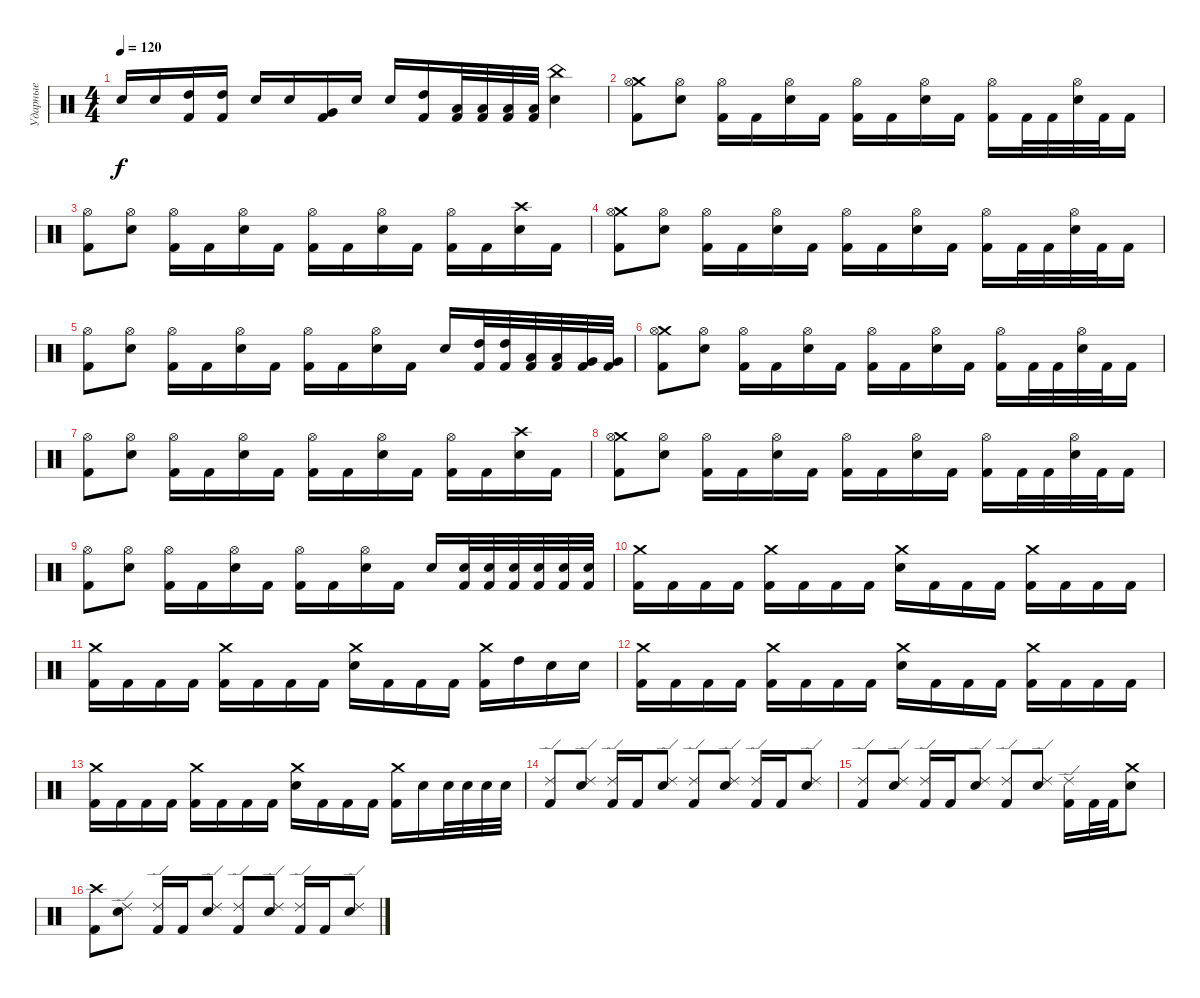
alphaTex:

\track ("Ударные" "Ударные") {instrument percussion}
\staff {score}
\articulation defaults
\ts (4 4)
\tempo 120
\clef neutral
\ks c "Snare (hit)".16{dy f} "Electric Snare (hit)".16
("High Tom (hit)" "Kick (hit) 2").16 ("High Tom (hit)" "Kick (hit) 2").16 "Electric Snare (hit)".16 "Electric Snare (hit)".16 ("Very Low Tom (hit)" "Kick (hit) 2").16 "Electric Snare (hit)".16 "Electric Snare (hit)".16 ("High Tom (hit)" "Kick (hit) 2").16 ("Low Tom (hit)" "Kick (hit) 2").32 ("Low Tom (hit)" "Kick (hit) 2").32 ("Low Tom (hit)" "Kick (hit) 2").32 ("Low Tom (hit)" "Kick (hit) 2").32 ("China (hit)" "Electric Snare (hit)").4 |
("Crash medium (hit)" "Hi-Hat (open)" "Kick (hit) 2").8 ("Hi-Hat (open)" "Electric Snare (hit)").8 ("Hi-Hat (open)" "Kick (hit) 2").16 "Kick (hit) 2".16 ("Hi-Hat (open)" "Electric Snare (hit)").16 "Kick (hit) 2".16 ("Hi-Hat (open)" "Kick (hit) 2").16 "Kick (hit) 2".16 ("Hi-Hat (open)" "Electric Snare (hit)").16 "Kick (hit) 2".16 ("Hi-Hat (open)" "Kick (hit) 2").16 "Kick (hit) 2".32 "Kick (hit) 2".32 ("Hi-Hat (open)" "Electric Snare (hit)").32 "Kick (hit) 2".32 "Kick (hit) 2".16 |
("Hi-Hat (open)" "Kick (hit) 2").8 ("Hi-Hat (open)" "Electric Snare (hit)").8 ("Hi-Hat (open)" "Kick (hit) 2").16 "Kick (hit) 2".16 ("Hi-Hat (open)" "Electric Snare (hit)").16 "Kick (hit) 2".16 ("Hi-Hat (open)" "Kick (hit) 2").16 "Kick (hit) 2".16 ("Hi-Hat (open)" "Electric Snare (hit)").16 "Kick (hit) 2".16 ("Hi-Hat (open)" "Kick (hit) 2").16 "Kick (hit) 2".16 ("Crash high (hit)" "Electric Snare (hit)").16 "Kick (hit) 2".16 |
("Crash medium (hit)" "Hi-Hat (open)" "Kick (hit) 2").8 ("Hi-Hat (open)" "Electric Snare (hit)").8 ("Hi-Hat (open)" "Kick (hit) 2").16 "Kick (hit) 2".16 ("Hi-Hat (open)" "Electric Snare (hit)").16 "Kick (hit) 2".16 ("Hi-Hat (open)" "Kick (hit) 2").16 "Kick (hit) 2".16 ("Hi-Hat (open)" "Electric Snare (hit)").16 "Kick (hit) 2".16 ("Hi-Hat (open)" "Kick (hit) 2").16 "Kick (hit) 2".32 "Kick (hit) 2".32 ("Hi-Hat (open)" "Electric Snare (hit)").32 "Kick (hit) 2".32 "Kick (hit) 2".16 |
("Hi-Hat (open)" "Kick (hit) 2").8 ("Hi-Hat (open)" "Electric Snare (hit)").8 ("Hi-Hat (open)" "Kick (hit) 2").16 "Kick (hit) 2".16 ("Hi-Hat (open)" "Electric Snare (hit)").16 "Kick (hit) 2".16 ("Hi-Hat (open)" "Kick (hit) 2").16 "Kick (hit) 2".16 ("Hi-Hat (open)" "Electric Snare (hit)").16 "Kick (hit) 2".16 "Electric Snare (hit)".16 ("High Tom (hit)" "Kick (hit) 2").32 ("High Tom (hit)" "Kick (hit) 2").32 ("Low Tom (hit)" "Kick (hit) 2").32 ("Low Tom (hit)" "Kick (hit) 2").32 ("Very Low Tom (hit)" "Kick (hit) 2").32 ("Very Low Tom (hit)" "Kick (hit) 2").32 |
("Crash medium (hit)" "Hi-Hat (open)" "Kick (hit) 2").8 ("Hi-Hat (open)" "Electric Snare (hit)").8 ("Hi-Hat (open)" "Kick (hit) 2").16 "Kick (hit) 2".16 ("Hi-Hat (open)" "Electric Snare (hit)").16 "Kick (hit) 2".16 ("Hi-Hat (open)" "Kick (hit) 2").16 "Kick (hit) 2".16 ("Hi-Hat (open)" "Electric Snare (hit)").16 "Kick (hit) 2".16 ("Hi-Hat (open)" "Kick (hit) 2").16 "Kick (hit) 2".32 "Kick (hit) 2".32 ("Hi-Hat (open)" "Electric Snare (hit)").32 "Kick (hit) 2".32 "Kick (hit) 2".16 |
("Hi-Hat (open)" "Kick (hit) 2").8 ("Hi-Hat (open)" "Electric Snare (hit)").8 ("Hi-Hat (open)" "Kick (hit) 2").16 "Kick (hit) 2".16 ("Hi-Hat (open)" "Electric Snare (hit)").16 "Kick (hit) 2".16 ("Hi-Hat (open)" "Kick (hit) 2").16 "Kick (hit) 2".16 ("Hi-Hat (open)" "Electric Snare (hit)").16 "Kick (hit) 2".16 ("Hi-Hat (open)" "Kick (hit) 2").16 "Kick (hit) 2".16 ("Crash high (hit)" "Electric Snare (hit)").16 "Kick (hit) 2".16 |
("Crash medium (hit)" "Hi-Hat (open)" "Kick (hit) 2").8 ("Hi-Hat (open)" "Electric Snare (hit)").8 ("Hi-Hat (open)" "Kick (hit) 2").16 "Kick (hit) 2".16 ("Hi-Hat (open)" "Electric Snare (hit)").16 "Kick (hit) 2".16 ("Hi-Hat (open)" "Kick (hit) 2").16 "Kick (hit) 2".16 ("Hi-Hat (open)" "Electric Snare (hit)").16 "Kick (hit) 2".16 ("Hi-Hat (open)" "Kick (hit) 2").16 "Kick (hit) 2".32 "Kick (hit) 2".32 ("Hi-Hat (open)" "Electric Snare (hit)").32 "Kick (hit) 2".32 "Kick (hit) 2".16 |
("Hi-Hat (open)" "Kick (hit) 2").8 ("Hi-Hat (open)" "Electric Snare (hit)").8 ("Hi-Hat (open)" "Kick (hit) 2").16 "Kick (hit) 2".16 ("Hi-Hat (open)" "Electric Snare (hit)").16 "Kick (hit) 2".16 ("Hi-Hat (open)" "Kick (hit) 2").16 "Kick (hit) 2".16 ("Hi-Hat (open)" "Electric Snare (hit)").16 "Kick (hit) 2".16 "Electric Snare (hit)".16 ("Electric Snare (hit)" "Kick (hit) 2").32 ("Electric Snare (hit)" "Kick (hit) 2").32 ("Electric Snare (hit)" "Kick (hit) 2").32 ("Electric Snare (hit)" "Kick (hit) 2").32 ("Electric Snare (hit)" "Kick (hit) 2").32 ("Electric Snare (hit)" "Kick (hit) 2").32 |
("Crash medium (hit)" "Kick (hit) 2").16 "Kick (hit) 2".16 "Kick (hit) 2".16 "Kick (hit) 2".16 ("Crash medium (hit)" "Kick (hit) 2").16 "Kick (hit) 2".16 "Kick (hit) 2".16 "Kick (hit) 2".16 ("Crash medium (hit)" "Electric Snare (hit)").16 "Kick (hit) 2".16 "Kick (hit) 2".16 "Kick (hit) 2".16 ("Crash medium (hit)" "Kick (hit) 2").16 "Kick (hit) 2".16 "Kick (hit) 2".16 "Kick (hit) 2".16 |
("Crash medium (hit)" "Kick (hit) 2").16 "Kick (hit) 2".16 "Kick (hit) 2".16 "Kick (hit) 2".16 ("Crash medium (hit)" "Kick (hit) 2").16 "Kick (hit) 2".16 "Kick (hit) 2".16 "Kick (hit) 2".16 ("Crash medium (hit)" "Electric Snare (hit)").16 "Kick (hit) 2".16 "Kick (hit) 2".16 "Kick (hit) 2".16 ("Crash medium (hit)" "Kick (hit) 2").16 "High Tom (hit)".16 "Electric Snare (hit)".16 "Electric Snare (hit)".16 |
("Crash medium (hit)" "Kick (hit) 2").16 "Kick (hit) 2".16 "Kick (hit) 2".16 "Kick (hit) 2".16 ("Crash medium (hit)" "Kick (hit) 2").16 "Kick (hit) 2".16 "Kick (hit) 2".16 "Kick (hit) 2".16 ("Crash medium (hit)" "Electric Snare (hit)").16 "Kick (hit) 2".16 "Kick (hit) 2".16 "Kick (hit) 2".16 ("Crash medium (hit)" "Kick (hit) 2").16 "Kick (hit) 2".16 "Kick (hit) 2".16 "Kick (hit) 2".16 |
("Crash medium (hit)" "Kick (hit) 2").16 "Kick (hit) 2".16 "Kick (hit) 2".16 "Kick (hit) 2".16 ("Crash medium (hit)" "Kick (hit) 2").16 "Kick (hit) 2".16 "Kick (hit) 2".16 "Kick (hit) 2".16 ("Crash medium (hit)" "Electric Snare (hit)").16 "Kick (hit) 2".16 "Kick (hit) 2".16 "Kick (hit) 2".16 ("Crash medium (hit)" "Kick (hit) 2").16 "Electric Snare (hit)".16 "Electric Snare (hit)".32 "Electric Snare (hit)".32 "Electric Snare (hit)".32 "Electric Snare (hit)".32 |
("Ride (edge) 2" "Kick (hit) 2").8 ("Ride (edge) 2" "Electric Snare (hit)").8 ("Ride (edge) 2" "Kick (hit) 2").16 "Kick (hit) 2".16 ("Ride (edge) 2" "Electric Snare (hit)").8 ("Ride (edge) 2" "Kick (hit) 2").8 ("Ride (edge) 2" "Electric Snare (hit)").8 ("Ride (edge) 2" "Kick (hit) 2").16 "Kick (hit) 2".16 ("Ride (edge) 2" "Electric Snare (hit)").8 |
("Ride (edge) 2" "Kick (hit) 2").8 ("Ride (edge) 2" "Electric Snare (hit)").8 ("Ride (edge) 2" "Kick (hit) 2").16 "Kick (hit) 2".16 ("Ride (edge) 2" "Electric Snare (hit)").8 ("Ride (edge) 2" "Kick (hit) 2").8 ("Ride (edge) 2" "Electric Snare (hit)").8 ("Ride (edge) 2" "Kick (hit) 2").16 "Kick (hit) 2".32 "Kick (hit) 2".32 ("Crash medium (hit)" "Electric Snare (hit)").8 |
("Crash high (hit)" "Kick (hit) 2").8 ("Ride (edge) 2" "Electric Snare (hit)").8 ("Ride (edge) 2" "Kick (hit) 2").16 "Kick (hit) 2".16 ("Ride (edge) 2" "Electric Snare (hit)").8 ("Ride (edge) 2" "Kick (hit) 2").8 ("Ride (edge) 2" "Electric Snare (hit)").8 ("Ride (edge) 2" "Kick (hit) 2").16 "Kick (hit) 2".16 ("Ride (edge) 2" "Electric Snare (hit)").8
